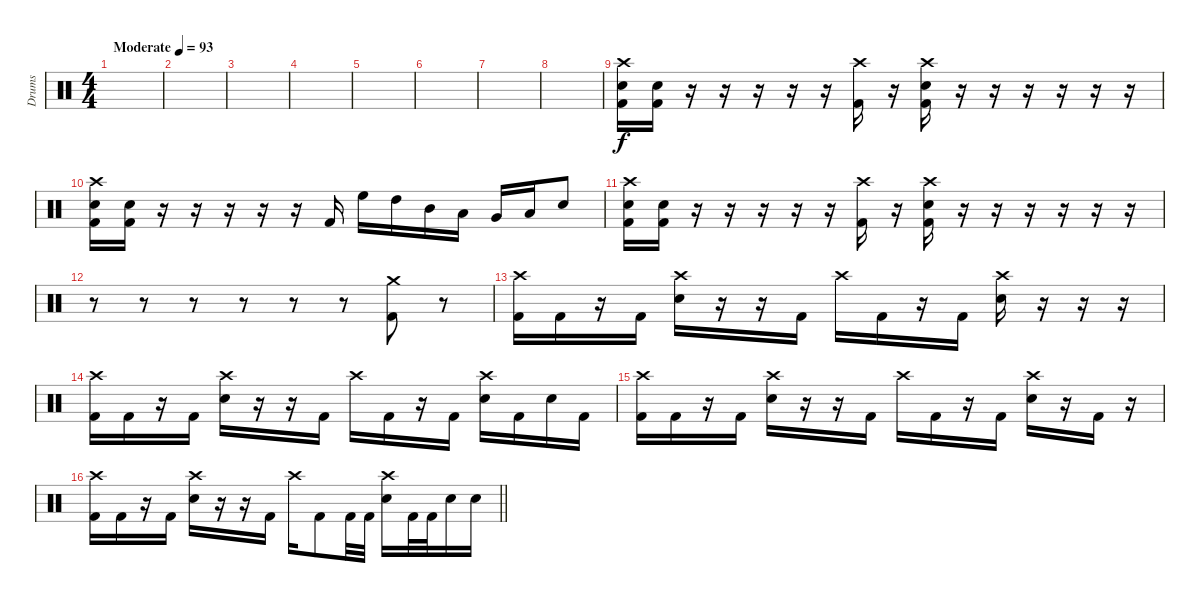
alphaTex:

\track ("Drums" "Drums") {instrument percussion}
\staff
\articulation defaults
\ts (4 4)
\tempo (93 "Moderate")
\clef neutral
\ks c
|
|
|
|
|
|
|
|
("Crash high (hit)" "Snare (hit) 2" "Kick (hit) 2").16 ("Snare (hit) 2" "Kick (hit) 2").16 r.16 r.16 r.16 r.16 r.16 ("Crash high (hit)" "Kick (hit) 2").16 r.16 ("Crash high (hit)" "Snare (hit) 2" "Kick (hit) 2").16 r.16 r.16 r.16 r.16 r.16 r.16 |
("Crash high (hit)" "Snare (hit) 2" "Kick (hit) 2").16 ("Snare (hit) 2" "Kick (hit) 2").16 r.16 r.16 r.16 r.16 r.16 "Kick (hit) 2".16 "High Floor Tom (hit)".16 "High Tom (hit)".16 "Mid Tom (hit)".16 "Low Tom (hit)".16 "Very Low Tom (hit)".16 "Low Floor Tom (hit)".16 "Snare (hit) 2".8 |
("Crash high (hit)" "Snare (hit) 2" "Kick (hit) 2").16 ("Snare (hit) 2" "Kick (hit) 2").16 r.16 r.16 r.16 r.16 r.16 ("Crash high (hit)" "Kick (hit) 2").16 r.16 ("Crash high (hit)" "Snare (hit) 2" "Kick (hit) 2").16 r.16 r.16 r.16 r.16 r.16 r.16 |
r.8 r.8 r.8 r.8 r.8 r.8 ("Crash medium (hit)" "Kick (hit) 2").8 r.8 |
("Crash high (hit)" "Kick (hit) 2").16 "Kick (hit) 2".16 r.16 "Kick (hit) 2".16 ("Crash high (hit)" "Snare (hit) 2").16 r.16 r.16 "Kick (hit) 2".16 "Crash high (hit)".16 "Kick (hit) 2".16 r.16 "Kick (hit) 2".16 ("Crash high (hit)" "Snare (hit) 2").16 r.16 r.16 r.16 |
("Crash high (hit)" "Kick (hit) 2").16 "Kick (hit) 2".16 r.16 "Kick (hit) 2".16 ("Crash high (hit)" "Snare (hit) 2").16 r.16 r.16 "Kick (hit) 2".16 "Crash high (hit)".16 "Kick (hit) 2".16 r.16 "Kick (hit) 2".16 ("Crash high (hit)" "Snare (hit) 2").16 "Kick (hit) 2".16 "Snare (hit) 2".16 "Kick (hit) 2".16 |
("Crash high (hit)" "Kick (hit) 2").16 "Kick (hit) 2".16 r.16 "Kick (hit) 2".16 ("Crash high (hit)" "Snare (hit) 2").16 r.16 r.16 "Kick (hit) 2".16 "Crash high (hit)".16 "Kick (hit) 2".16 r.16 "Kick (hit) 2".16 ("Crash high (hit)" "Snare (hit) 2").16 r.16 "Kick (hit) 2".16 r.16 |
\barLineRight lightlight
("Crash high (hit)" "Kick (hit) 2").16 "Kick (hit) 2".16 r.16 "Kick (hit) 2".16 ("Crash high (hit)" "Snare (hit) 2").16 r.16 r.16 "Kick (hit) 2".16 "Crash high (hit)".16 "Kick (hit) 2".8 "Kick (hit) 2".32 "Kick (hit) 2".32 ("Crash high (hit)" "Snare (hit) 2").16 "Kick (hit) 2".32 "Kick (hit) 2".32 "Snare (hit) 2".16 "Snare (hit) 2".16
